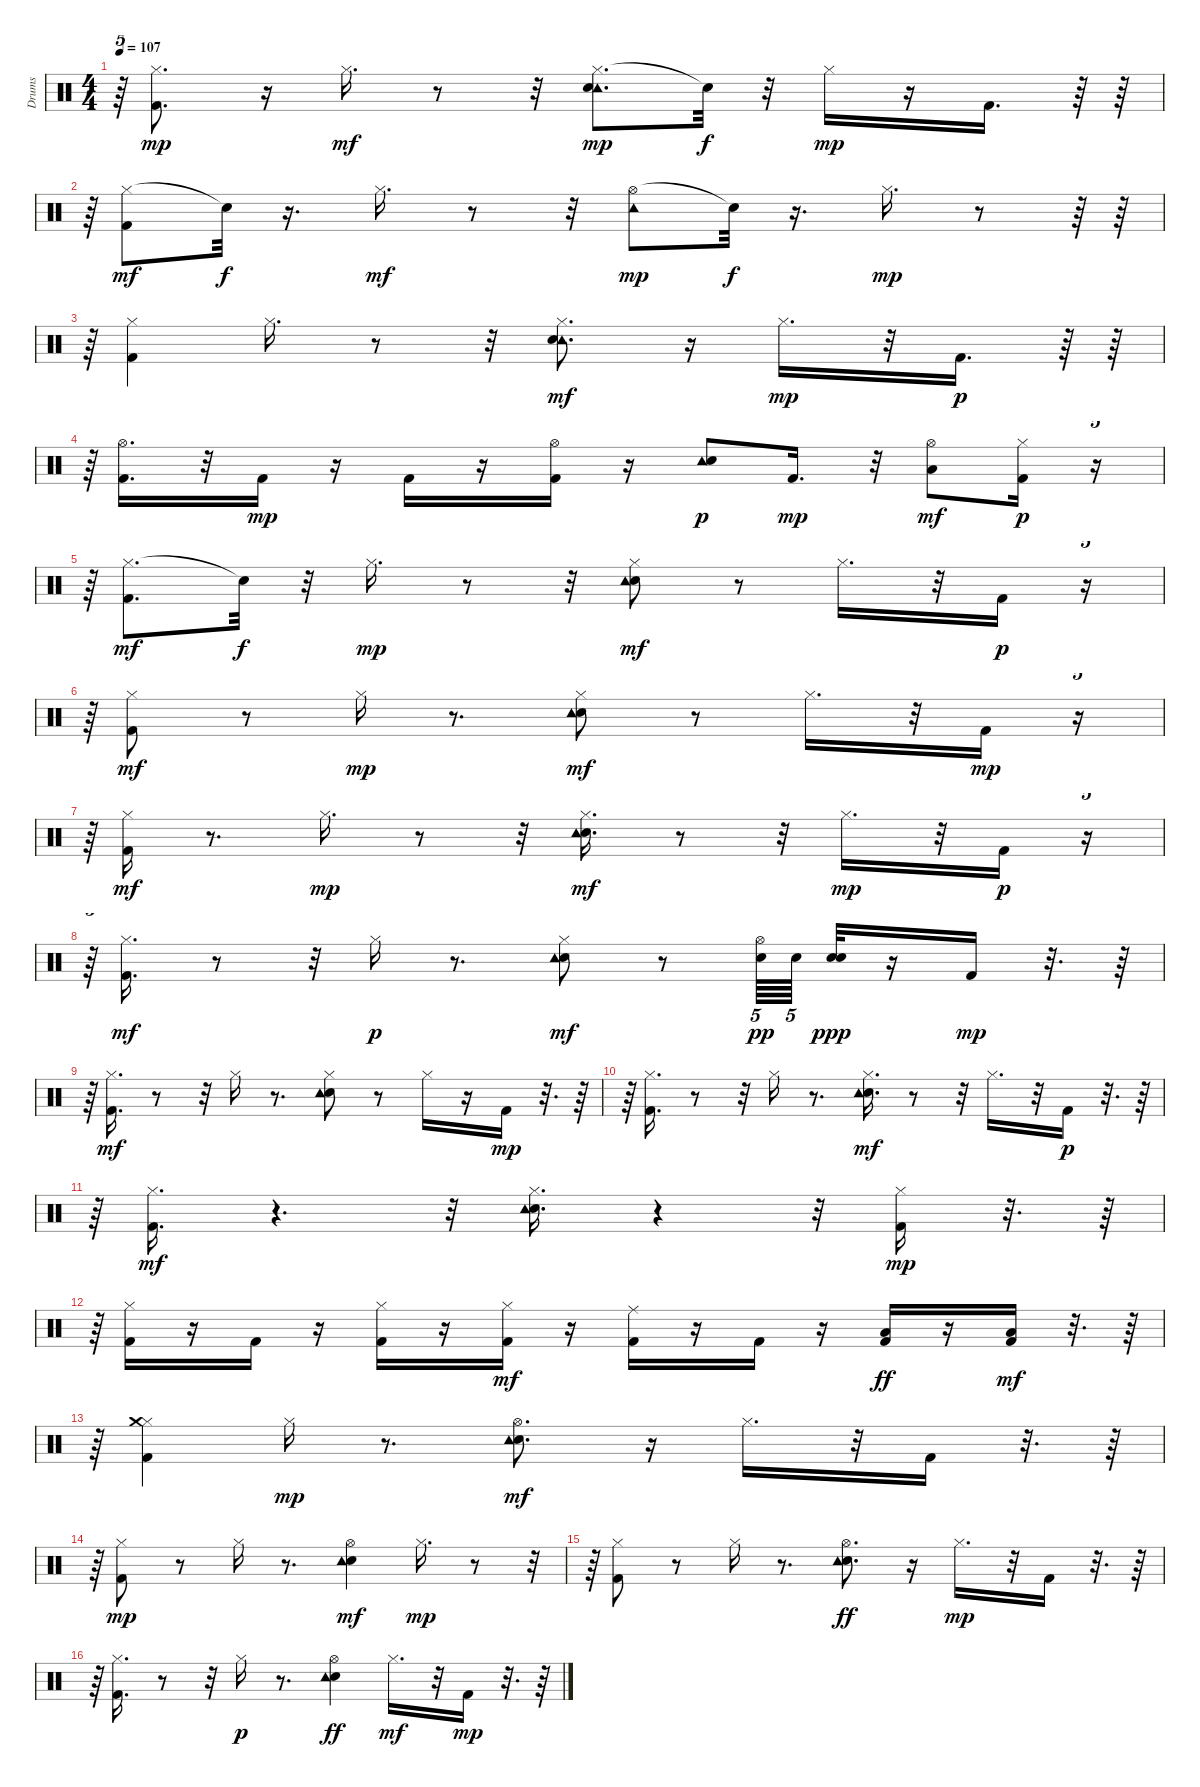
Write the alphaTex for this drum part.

\track ("Drums" "Drums") {instrument percussion}
\staff {score}
\articulation defaults
\ts (4 4)
\tempo 107
\clef neutral
\ks c
r.64{tu (5 4) dy mp} ("Hi-Hat (closed)" "Kick (hit) 2").8{d} r.16 "Hi-Hat (closed)".16{d dy mf} r.8 r.32 ("Hi-Hat (closed)" "Tambourine (hit)" "Electric Snare (hit)").8{d dy mp} "Snare (hit)"{t}.32{dy f} r.32 "Hi-Hat (closed)".16{dy mp} r.16 "Kick (hit) 2".16{d} r.64 r.64 |
r.64{tu (5 4)} ("Hi-Hat (closed)" "Kick (hit) 2").8{dy mf} "Snare (hit)"{t}.32{dy f} r.16{d} "Hi-Hat (closed)".16{d dy mf} r.8 r.32 ("Hi-Hat (open)" "Tambourine (hit)").8{dy mp} "Snare (hit)"{t}.32{dy f} r.16{d} "Hi-Hat (closed)".16{d dy mp} r.8 r.64 r.64 |
r.64{tu (5 4)} ("Hi-Hat (closed)" "Kick (hit) 2").4 "Hi-Hat (closed)".16{d} r.8 r.32 ("Hi-Hat (closed)" "Tambourine (hit)" "Electric Snare (hit)").8{d dy mf} r.16 "Hi-Hat (closed)".16{d dy mp} r.32 "Kick (hit) 2".16{d dy p} r.64 r.64 |
r.64{tu (5 4)} ("Hi-Hat (open)" "Kick (hit) 2").16{d} r.32 "Kick (hit) 2".16{dy mp} r.16 "Kick (hit) 2".16 r.16 ("Hi-Hat (open)" "Kick (hit) 2").16 r.16 ("Tambourine (hit)" "Electric Snare (hit)").8{dy p} "Kick (hit) 2".16{d dy mp} r.32 ("Hi-Hat (open)" "Low Floor Tom (hit)").8{dy mf} ("Hi-Hat (closed)" "Kick (hit) 2").16{dy p} r.16{tu (5 4)} |
r.64{tu (5 4)} ("Hi-Hat (closed)" "Kick (hit) 2").8{d dy mf} "Snare (hit)"{t}.32{dy f} r.32 "Hi-Hat (closed)".16{d dy mp} r.8 r.32 ("Hi-Hat (closed)" "Electric Snare (hit)" "Tambourine (hit)").8{dy mf} r.8 "Hi-Hat (closed)".16{d} r.32 "Kick (hit) 2".16{dy p} r.16{tu (5 4)} |
r.64{tu (5 4)} ("Hi-Hat (closed)" "Kick (hit) 2").8{dy mf} r.8 "Hi-Hat (closed)".16{dy mp} r.8{d} ("Hi-Hat (closed)" "Electric Snare (hit)" "Tambourine (hit)").8{dy mf} r.8 "Hi-Hat (closed)".16{d} r.32 "Kick (hit) 2".16{dy mp} r.16{tu (5 4)} |
r.64{tu (5 4)} ("Hi-Hat (closed)" "Kick (hit) 2").16{dy mf} r.8{d} "Hi-Hat (closed)".16{d dy mp} r.8 r.32 ("Hi-Hat (closed)" "Electric Snare (hit)" "Tambourine (hit)").16{d dy mf} r.8 r.32 "Hi-Hat (closed)".16{d dy mp} r.32 "Kick (hit) 2".16{dy p} r.16{tu (5 4)} |
r.64{tu (5 4)} ("Hi-Hat (closed)" "Kick (hit) 2").16{d dy mf} r.8 r.32 "Hi-Hat (closed)".16{dy p} r.8{d} ("Hi-Hat (closed)" "Electric Snare (hit)" "Tambourine (hit)").8{dy mf} r.8 ("Hi-Hat (open)" "Electric Snare (hit)").64{tu (5 4) dy pp} "Electric Snare (hit)".64{tu (5 4) beam splitsecondary} ("Electric Snare (hit)" "Electric Snare (hit)").32{dy ppp} r.16 "Kick (hit) 2".16{dy mp} r.32{d} r.64 |
r.64 ("Hi-Hat (closed)" "Kick (hit) 2").16{d dy mf} r.8 r.32 "Hi-Hat (closed)".16 r.8{d} ("Hi-Hat (closed)" "Electric Snare (hit)" "Tambourine (hit)").8 r.8 "Hi-Hat (closed)".16 r.16 "Kick (hit) 2".16{dy mp} r.32{d} r.64 |
r.64 ("Hi-Hat (closed)" "Kick (hit) 2").16{d} r.8 r.32 "Hi-Hat (closed)".16 r.8{d} ("Hi-Hat (closed)" "Electric Snare (hit)" "Tambourine (hit)").16{d dy mf} r.8 r.32 "Hi-Hat (closed)".16{d} r.32 "Kick (hit) 2".16{dy p} r.32{d} r.64 |
r.64 ("Hi-Hat (closed)" "Kick (hit) 2").16{d dy mf} r.4{d} r.32 ("Hi-Hat (closed)" "Electric Snare (hit)" "Tambourine (hit)").16{d} r.4 r.32 ("Hi-Hat (closed)" "Kick (hit) 2").16{dy mp} r.32{d} r.64 |
r.64 ("Hi-Hat (closed)" "Kick (hit) 2").16 r.16 "Kick (hit) 2".16 r.16 ("Hi-Hat (closed)" "Kick (hit) 2").16 r.16 ("Hi-Hat (closed)" "Kick (hit) 2").16{dy mf} r.16 ("Ride (middle)" "Kick (hit) 2").16 r.16 "Kick (hit) 2".16 r.16 ("Kick (hit) 2" "Low Floor Tom (hit)").16{dy ff} r.16 ("Kick (hit) 2" "Low Floor Tom (hit)").16{dy mf} r.32{d} r.64 |
r.64 ("Kick (hit) 2" "Hi-Hat (closed)" "Crash medium (hit)").4 "Hi-Hat (closed)".16{dy mp} r.8{d} ("Hi-Hat (open)" "Electric Snare (hit)" "Tambourine (hit)").8{d dy mf} r.16 "Hi-Hat (closed)".16{d} r.32 "Kick (hit) 2".16 r.32{d} r.64 |
r.64 ("Kick (hit) 2" "Hi-Hat (closed)").8{dy mp} r.8 "Hi-Hat (closed)".16 r.8{d} ("Hi-Hat (open)" "Electric Snare (hit)" "Tambourine (hit)").4{dy mf} "Hi-Hat (closed)".16{d dy mp} r.8 r.32{tu (5 4)} |
r.64 ("Kick (hit) 2" "Hi-Hat (closed)").8 r.8 "Hi-Hat (closed)".16 r.8{d} ("Hi-Hat (open)" "Electric Snare (hit)" "Tambourine (hit)").8{d dy ff} r.16 "Hi-Hat (closed)".16{d dy mp} r.32 "Kick (hit) 2".16 r.32{d} r.64 |
r.64 ("Kick (hit) 2" "Hi-Hat (closed)").16{d} r.8 r.32 "Hi-Hat (closed)".16{dy p} r.8{d} ("Hi-Hat (open)" "Electric Snare (hit)" "Tambourine (hit)").4{dy ff} "Hi-Hat (closed)".16{d dy mf} r.32 "Kick (hit) 2".16{dy mp} r.32{d} r.64
